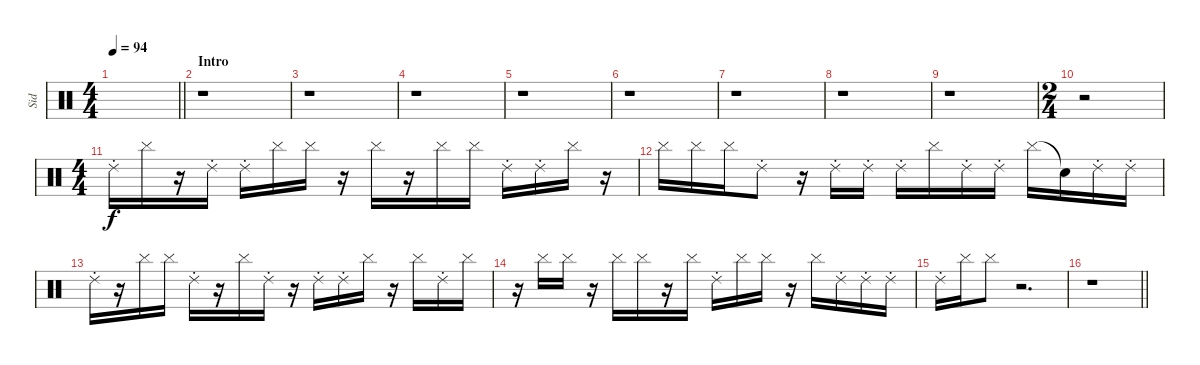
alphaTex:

\track ("Sid" "Sid") {instrument percussion}
\staff {score}
\articulation defaults
\ts (4 4)
\tempo 94
\clef neutral
\barLineRight lightlight
\ks c
|
\section ("" "Intro")
r.1 |
r.1 |
r.1 |
r.1 |
r.1 |
r.1 |
r.1 |
r.1 |
\ts (2 4)
r.2 |
\ts (4 4)
"Ride (choke) 2".16 "Cymbal (hit)".16 r.16 "Ride (choke) 2".16 "Ride (choke) 2".16 "Cymbal (hit)".16 "Cymbal (hit)".16 r.16 "Cymbal (hit)".16 r.16 "Cymbal (hit)".16 "Cymbal (hit)".16 "Ride (choke) 2".16 "Ride (choke) 2".16 "Cymbal (hit)".16 r.16 |
"Cymbal (hit)".16 "Cymbal (hit)".16 "Cymbal (hit)".16 "Ride (choke) 2".8 r.16 "Ride (choke) 2".16 "Ride (choke) 2".16 "Ride (choke) 2".16 "Cymbal (hit)".16 "Ride (choke) 2".16 "Ride (choke) 2".16 "Cymbal (hit)".16 "Snare (hit)"{t}.16 "Ride (choke) 2".16 "Ride (choke) 2".16 |
"Ride (choke) 2".16 r.16 "Cymbal (hit)".16 "Cymbal (hit)".16 "Ride (choke) 2".16 r.16 "Cymbal (hit)".16 "Ride (choke) 2".16 r.16 "Ride (choke) 2".16 "Ride (choke) 2".16 "Cymbal (hit)".16 r.16 "Cymbal (hit)".16 "Ride (choke) 2".16 "Cymbal (hit)".16 |
r.16 "Cymbal (hit)".16 "Cymbal (hit)".16 r.16 "Cymbal (hit)".16 "Cymbal (hit)".16 r.16 "Cymbal (hit)".16 "Ride (choke) 2".16 "Cymbal (hit)".16 "Cymbal (hit)".16 r.16 "Cymbal (hit)".16 "Ride (choke) 2".16 "Ride (choke) 2".16 "Ride (choke) 2".16 |
"Ride (choke) 2".16 "Cymbal (hit)".16 "Cymbal (hit)".8 r.2{d} |
\barLineRight lightlight
r.1
